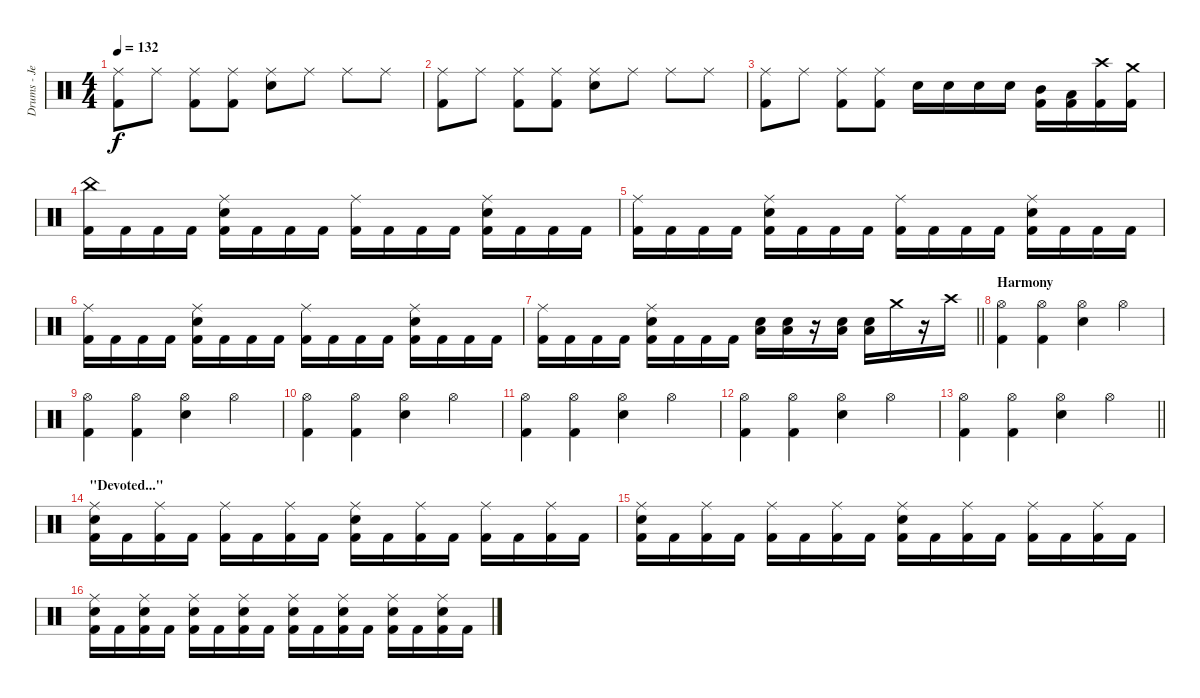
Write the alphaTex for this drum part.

\track ("Drums - Jeroen" "Drums - Je") {instrument percussion}
\staff {score}
\articulation defaults
\ts (4 4)
\tempo 132
\clef neutral
\ks c
("Ride (middle)" "Kick (hit) 2").8{dy f} "Ride (middle)".8 ("Ride (middle)" "Kick (hit) 2").8 ("Ride (middle)" "Kick (hit) 2").8 ("Ride (middle)" "Electric Snare (hit)").8 "Ride (middle)".8 "Ride (middle)".8 "Ride (middle)".8 |
("Ride (middle)" "Kick (hit) 2").8 "Ride (middle)".8 ("Ride (middle)" "Kick (hit) 2").8 ("Ride (middle)" "Kick (hit) 2").8 ("Ride (middle)" "Electric Snare (hit)").8 "Ride (middle)".8 "Ride (middle)".8 "Ride (middle)".8 |
("Ride (middle)" "Kick (hit) 2").8 "Ride (middle)".8 ("Ride (middle)" "Kick (hit) 2").8 ("Ride (middle)" "Kick (hit) 2").8 "Electric Snare (hit)".16 "Electric Snare (hit)".16 "Electric Snare (hit)".16 "Electric Snare (hit)".16 ("Mid Tom (hit)" "Kick (hit) 2").16 ("Low Tom (hit)" "Kick (hit) 2").16 ("Crash high (hit)" "Kick (hit) 2").16 ("Crash medium (hit)" "Kick (hit) 2").16 |
("China (hit)" "Kick (hit) 2").16 "Kick (hit) 2".16 "Kick (hit) 2".16 "Kick (hit) 2".16 ("Ride (middle)" "Electric Snare (hit)" "Kick (hit) 2").16 "Kick (hit) 2".16 "Kick (hit) 2".16 "Kick (hit) 2".16 ("Ride (middle)" "Kick (hit) 2").16 "Kick (hit) 2".16 "Kick (hit) 2".16 "Kick (hit) 2".16 ("Ride (middle)" "Electric Snare (hit)" "Kick (hit) 2").16 "Kick (hit) 2".16 "Kick (hit) 2".16 "Kick (hit) 2".16 |
("Ride (middle)" "Kick (hit) 2").16 "Kick (hit) 2".16 "Kick (hit) 2".16 "Kick (hit) 2".16 ("Ride (middle)" "Electric Snare (hit)" "Kick (hit) 2").16 "Kick (hit) 2".16 "Kick (hit) 2".16 "Kick (hit) 2".16 ("Ride (middle)" "Kick (hit) 2").16 "Kick (hit) 2".16 "Kick (hit) 2".16 "Kick (hit) 2".16 ("Ride (middle)" "Electric Snare (hit)" "Kick (hit) 2").16 "Kick (hit) 2".16 "Kick (hit) 2".16 "Kick (hit) 2".16 |
("Ride (middle)" "Kick (hit) 2").16 "Kick (hit) 2".16 "Kick (hit) 2".16 "Kick (hit) 2".16 ("Ride (middle)" "Electric Snare (hit)" "Kick (hit) 2").16 "Kick (hit) 2".16 "Kick (hit) 2".16 "Kick (hit) 2".16 ("Ride (middle)" "Kick (hit) 2").16 "Kick (hit) 2".16 "Kick (hit) 2".16 "Kick (hit) 2".16 ("Ride (middle)" "Electric Snare (hit)" "Kick (hit) 2").16 "Kick (hit) 2".16 "Kick (hit) 2".16 "Kick (hit) 2".16 |
\barLineRight lightlight
("Ride (middle)" "Kick (hit) 2").16 "Kick (hit) 2".16 "Kick (hit) 2".16 "Kick (hit) 2".16 ("Ride (middle)" "Electric Snare (hit)" "Kick (hit) 2").16 "Kick (hit) 2".16 "Kick (hit) 2".16 "Kick (hit) 2".16 ("Low Floor Tom (hit)" "Electric Snare (hit)").16 ("Low Floor Tom (hit)" "Electric Snare (hit)").16 r.16 ("Low Floor Tom (hit)" "Electric Snare (hit)").16 ("Low Floor Tom (hit)" "Electric Snare (hit)").16 "Crash medium (hit)".16 r.16 "Crash high (hit)".16 |
\section ("" "Harmony")
("Hi-Hat (open)" "Kick (hit) 2").4 ("Hi-Hat (open)" "Kick (hit) 2").4 ("Hi-Hat (open)" "Electric Snare (hit)").4 "Hi-Hat (open)".4 |
("Hi-Hat (open)" "Kick (hit) 2").4 ("Hi-Hat (open)" "Kick (hit) 2").4 ("Hi-Hat (open)" "Electric Snare (hit)").4 "Hi-Hat (open)".4 |
("Hi-Hat (open)" "Kick (hit) 2").4 ("Hi-Hat (open)" "Kick (hit) 2").4 ("Hi-Hat (open)" "Electric Snare (hit)").4 "Hi-Hat (open)".4 |
("Hi-Hat (open)" "Kick (hit) 2").4 ("Hi-Hat (open)" "Kick (hit) 2").4 ("Hi-Hat (open)" "Electric Snare (hit)").4 "Hi-Hat (open)".4 |
("Hi-Hat (open)" "Kick (hit) 2").4 ("Hi-Hat (open)" "Kick (hit) 2").4 ("Hi-Hat (open)" "Electric Snare (hit)").4 "Hi-Hat (open)".4 |
\barLineRight lightlight
("Hi-Hat (open)" "Kick (hit) 2").4 ("Hi-Hat (open)" "Kick (hit) 2").4 ("Hi-Hat (open)" "Electric Snare (hit)").4 "Hi-Hat (open)".4 |
\section ("" "\"Devoted...\" ")
("Ride (middle)" "Electric Snare (hit)" "Kick (hit) 2").16 "Kick (hit) 2".16 ("Ride (middle)" "Kick (hit) 2").16 "Kick (hit) 2".16 ("Ride (middle)" "Kick (hit) 2").16 "Kick (hit) 2".16 ("Ride (middle)" "Kick (hit) 2").16 "Kick (hit) 2".16 ("Ride (middle)" "Electric Snare (hit)" "Kick (hit) 2").16 "Kick (hit) 2".16 ("Ride (middle)" "Kick (hit) 2").16 "Kick (hit) 2".16 ("Ride (middle)" "Kick (hit) 2").16 "Kick (hit) 2".16 ("Ride (middle)" "Kick (hit) 2").16 "Kick (hit) 2".16 |
("Ride (middle)" "Electric Snare (hit)" "Kick (hit) 2").16 "Kick (hit) 2".16 ("Ride (middle)" "Kick (hit) 2").16 "Kick (hit) 2".16 ("Ride (middle)" "Kick (hit) 2").16 "Kick (hit) 2".16 ("Ride (middle)" "Kick (hit) 2").16 "Kick (hit) 2".16 ("Ride (middle)" "Electric Snare (hit)" "Kick (hit) 2").16 "Kick (hit) 2".16 ("Ride (middle)" "Kick (hit) 2").16 "Kick (hit) 2".16 ("Ride (middle)" "Kick (hit) 2").16 "Kick (hit) 2".16 ("Ride (middle)" "Kick (hit) 2").16 "Kick (hit) 2".16 |
("Ride (middle)" "Electric Snare (hit)" "Kick (hit) 2").16 "Kick (hit) 2".16 ("Ride (middle)" "Electric Snare (hit)" "Kick (hit) 2").16 "Kick (hit) 2".16 ("Ride (middle)" "Electric Snare (hit)" "Kick (hit) 2").16 "Kick (hit) 2".16 ("Ride (middle)" "Electric Snare (hit)" "Kick (hit) 2").16 "Kick (hit) 2".16 ("Ride (middle)" "Electric Snare (hit)" "Kick (hit) 2").16 "Kick (hit) 2".16 ("Ride (middle)" "Electric Snare (hit)" "Kick (hit) 2").16 "Kick (hit) 2".16 ("Ride (middle)" "Electric Snare (hit)" "Kick (hit) 2").16 "Kick (hit) 2".16 ("Ride (middle)" "Electric Snare (hit)" "Kick (hit) 2").16 "Kick (hit) 2".16
